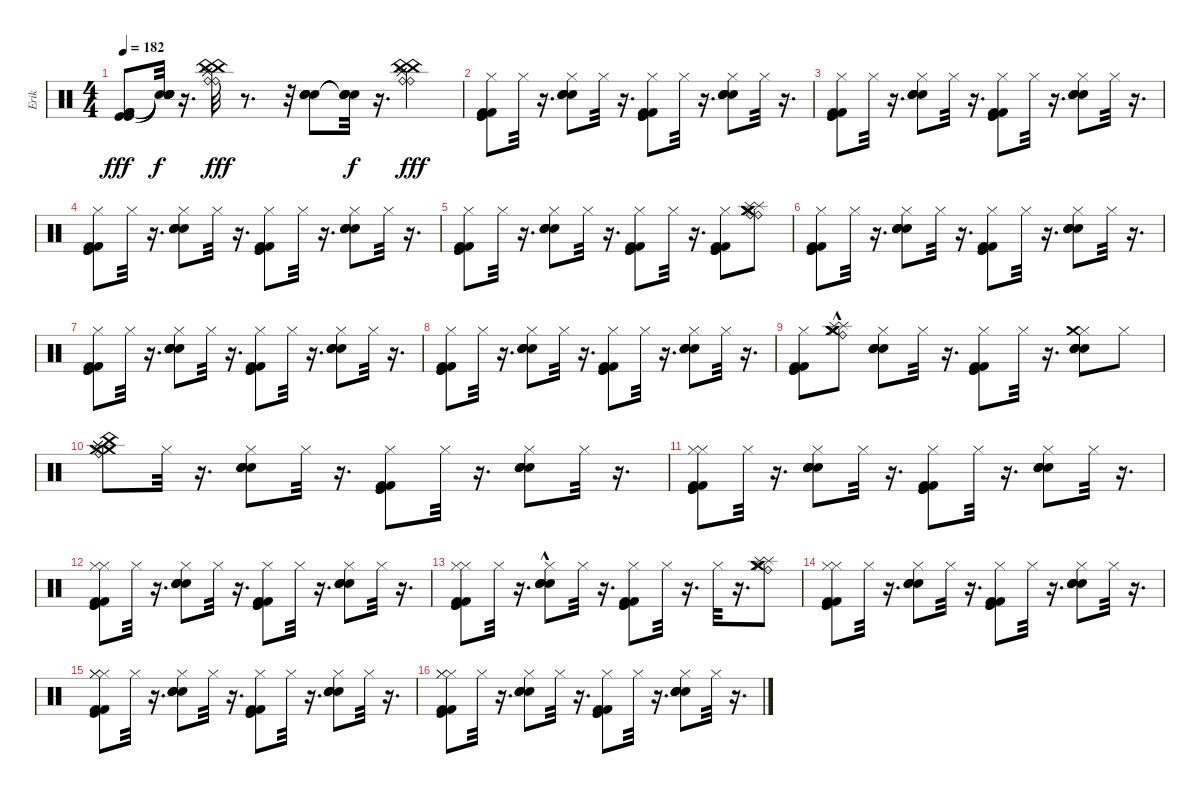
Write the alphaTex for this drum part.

\track ("Erik" "Erik") {instrument percussion}
\staff {score}
\articulation defaults
\ts (4 4)
\tempo 182
\clef neutral
\ks c
("Kick (hit)" "Kick (hit)" "Kick (hit) 2" "Kick (hit) 2" "Kick (hit) 2").8{dy fff} ("Snare (hit)"{t} "Snare (hit)"{t} "Snare (hit)"{t} "Snare (hit)"{t} "Snare (hit)"{t}).32{dy f} r.16{d} ("Splash (hit)" "Splash (hit)" "China (hit)" "China (hit)" "Ride (bell)" "Ride (bell)").32{dy fff} r.8{d} r.32 ("Electric Snare (hit)" "Electric Snare (hit)" "Snare (hit) 2" "Snare (hit) 2").8 ("Snare (hit)"{t} "Snare (hit)"{t} "Snare (hit)"{t} "Snare (hit)"{t}).32{dy f} r.16{d} ("Splash (hit)" "Splash (hit)" "Ride (bell)" "Ride (bell)" "China (hit)" "China (hit)").4{dy fff} |
("Hi-Hat (closed)" "Kick (hit) 2" "Kick (hit) 2" "Kick (hit)" "Kick (hit)").8 "Hi-Hat (closed)".32 r.16{d} ("Hi-Hat (closed)" "Electric Snare (hit)" "Electric Snare (hit)" "Snare (hit) 2" "Snare (hit) 2").8 "Hi-Hat (closed)".32 r.16{d} ("Hi-Hat (closed)" "Kick (hit) 2" "Kick (hit) 2" "Kick (hit)" "Kick (hit)").8 "Hi-Hat (closed)".32 r.16{d} ("Hi-Hat (closed)" "Electric Snare (hit)" "Electric Snare (hit)" "Snare (hit) 2" "Snare (hit) 2").8 "Hi-Hat (closed)".32 r.16{d} |
("Hi-Hat (closed)" "Kick (hit) 2" "Kick (hit) 2" "Kick (hit)" "Kick (hit)").8 "Hi-Hat (closed)".32 r.16{d} ("Hi-Hat (closed)" "Electric Snare (hit)" "Electric Snare (hit)" "Snare (hit) 2" "Snare (hit) 2").8 "Hi-Hat (closed)".32 r.16{d} ("Hi-Hat (closed)" "Kick (hit) 2" "Kick (hit) 2" "Kick (hit)" "Kick (hit)").8 "Hi-Hat (closed)".32 r.16{d} ("Hi-Hat (closed)" "Electric Snare (hit)" "Electric Snare (hit)" "Snare (hit) 2" "Snare (hit) 2").8 "Hi-Hat (closed)".32 r.16{d} |
("Hi-Hat (closed)" "Kick (hit) 2" "Kick (hit) 2" "Kick (hit)" "Kick (hit)").8 "Hi-Hat (closed)".32 r.16{d} ("Hi-Hat (closed)" "Electric Snare (hit)" "Electric Snare (hit)" "Snare (hit) 2" "Snare (hit) 2").8 "Hi-Hat (closed)".32 r.16{d} ("Hi-Hat (closed)" "Kick (hit) 2" "Kick (hit) 2" "Kick (hit)" "Kick (hit)").8 "Hi-Hat (closed)".32 r.16{d} ("Hi-Hat (closed)" "Electric Snare (hit)" "Electric Snare (hit)" "Snare (hit) 2" "Snare (hit) 2").8 "Hi-Hat (closed)".32 r.16{d} |
("Hi-Hat (closed)" "Kick (hit) 2" "Kick (hit) 2" "Kick (hit)" "Kick (hit)").8 "Hi-Hat (closed)".32 r.16{d} ("Hi-Hat (closed)" "Electric Snare (hit)" "Electric Snare (hit)" "Snare (hit) 2" "Snare (hit) 2").8 "Hi-Hat (closed)".32 r.16{d} ("Hi-Hat (closed)" "Kick (hit) 2" "Kick (hit) 2" "Kick (hit)" "Kick (hit)").8 "Hi-Hat (closed)".32 r.16{d} ("Kick (hit) 2" "Kick (hit) 2" "Kick (hit)" "Kick (hit)" "Hi-Hat (closed)").8 ("Crash medium (hit)" "Crash medium (hit)" "Splash (hit)" "Splash (hit)" "Ride (bell)" "Ride (bell)").8 |
("Hi-Hat (closed)" "Kick (hit) 2" "Kick (hit) 2" "Kick (hit)" "Kick (hit)").8 "Hi-Hat (closed)".32 r.16{d} ("Hi-Hat (closed)" "Electric Snare (hit)" "Electric Snare (hit)" "Snare (hit) 2" "Snare (hit) 2").8 "Hi-Hat (closed)".32 r.16{d} ("Hi-Hat (closed)" "Kick (hit) 2" "Kick (hit) 2" "Kick (hit)" "Kick (hit)").8 "Hi-Hat (closed)".32 r.16{d} ("Hi-Hat (closed)" "Electric Snare (hit)" "Electric Snare (hit)" "Snare (hit) 2" "Snare (hit) 2").8 "Hi-Hat (closed)".32 r.16{d} |
("Hi-Hat (closed)" "Kick (hit) 2" "Kick (hit) 2" "Kick (hit)" "Kick (hit)").8 "Hi-Hat (closed)".32 r.16{d} ("Hi-Hat (closed)" "Electric Snare (hit)" "Electric Snare (hit)" "Snare (hit) 2" "Snare (hit) 2").8 "Hi-Hat (closed)".32 r.16{d} ("Hi-Hat (closed)" "Kick (hit) 2" "Kick (hit) 2" "Kick (hit)" "Kick (hit)").8 "Hi-Hat (closed)".32 r.16{d} ("Hi-Hat (closed)" "Electric Snare (hit)" "Electric Snare (hit)" "Snare (hit) 2" "Snare (hit) 2").8 "Hi-Hat (closed)".32 r.16{d} |
("Hi-Hat (closed)" "Kick (hit) 2" "Kick (hit) 2" "Kick (hit)" "Kick (hit)").8 "Hi-Hat (closed)".32 r.16{d} ("Hi-Hat (closed)" "Electric Snare (hit)" "Electric Snare (hit)" "Snare (hit) 2" "Snare (hit) 2").8 "Hi-Hat (closed)".32 r.16{d} ("Hi-Hat (closed)" "Kick (hit) 2" "Kick (hit) 2" "Kick (hit)" "Kick (hit)").8 "Hi-Hat (closed)".32 r.16{d} ("Hi-Hat (closed)" "Electric Snare (hit)" "Electric Snare (hit)" "Snare (hit) 2" "Snare (hit) 2").8 "Hi-Hat (closed)".32 r.16{d} |
("Hi-Hat (closed)" "Kick (hit) 2" "Kick (hit) 2" "Kick (hit)" "Kick (hit)").8 ("Hi-Hat (closed)" "Crash medium (hit)" "Crash medium (hit)" "Splash (hit)"{hac} "Splash (hit)"{hac} "Ride (bell)"{hac}).8 ("Hi-Hat (closed)" "Electric Snare (hit)" "Electric Snare (hit)" "Snare (hit) 2" "Snare (hit) 2").8 "Hi-Hat (closed)".32 r.16{d} ("Hi-Hat (closed)" "Kick (hit) 2" "Kick (hit) 2" "Kick (hit)" "Kick (hit)").8 "Hi-Hat (closed)".32 r.16{d} ("Hi-Hat (closed)" "Electric Snare (hit)" "Electric Snare (hit)" "Snare (hit) 2" "Snare (hit) 2" "Crash medium (hit)").8 "Hi-Hat (closed)".8 |
("Crash medium (hit)" "Splash (hit)" "Splash (hit)" "Crash medium (hit)" "China (hit)" "Ride (bell)").8 "Hi-Hat (closed)".32 r.16{d} ("Hi-Hat (closed)" "Electric Snare (hit)" "Electric Snare (hit)" "Snare (hit) 2" "Snare (hit) 2").8 "Hi-Hat (closed)".32 r.16{d} ("Hi-Hat (closed)" "Kick (hit) 2" "Kick (hit) 2" "Kick (hit)" "Kick (hit)").8 "Hi-Hat (closed)".32 r.16{d} ("Hi-Hat (closed)" "Electric Snare (hit)" "Electric Snare (hit)" "Snare (hit) 2" "Snare (hit) 2").8 "Hi-Hat (closed)".32 r.16{d} |
("Hi-Hat (closed)" "Hi-Hat (closed)" "Kick (hit) 2" "Kick (hit) 2" "Kick (hit)" "Kick (hit)").8 "Hi-Hat (closed)".32 r.16{d} ("Hi-Hat (closed)" "Electric Snare (hit)" "Electric Snare (hit)" "Snare (hit) 2" "Snare (hit) 2").8 "Hi-Hat (closed)".32 r.16{d} ("Hi-Hat (closed)" "Kick (hit) 2" "Kick (hit) 2" "Kick (hit)" "Kick (hit)").8 "Hi-Hat (closed)".32 r.16{d} ("Hi-Hat (closed)" "Electric Snare (hit)" "Electric Snare (hit)" "Snare (hit) 2" "Snare (hit) 2").8 "Hi-Hat (closed)".32 r.16{d} |
("Hi-Hat (closed)" "Hi-Hat (closed)" "Kick (hit) 2" "Kick (hit) 2" "Kick (hit)" "Kick (hit)").8 "Hi-Hat (closed)".32 r.16{d} ("Hi-Hat (closed)" "Electric Snare (hit)" "Electric Snare (hit)" "Snare (hit) 2" "Snare (hit) 2").8 "Hi-Hat (closed)".32 r.16{d} ("Hi-Hat (closed)" "Kick (hit) 2" "Kick (hit) 2" "Kick (hit)" "Kick (hit)").8 "Hi-Hat (closed)".32 r.16{d} ("Hi-Hat (closed)" "Electric Snare (hit)" "Electric Snare (hit)" "Snare (hit) 2" "Snare (hit) 2").8 "Hi-Hat (closed)".32 r.16{d} |
("Hi-Hat (closed)" "Hi-Hat (closed)" "Kick (hit) 2" "Kick (hit) 2" "Kick (hit)" "Kick (hit)").8 "Hi-Hat (closed)".32 r.16{d} ("Hi-Hat (closed)" "Electric Snare (hit)"{hac} "Electric Snare (hit)"{hac} "Snare (hit) 2"{hac} "Snare (hit) 2"{hac}).8 "Hi-Hat (closed)".32 r.16{d} ("Hi-Hat (closed)" "Kick (hit) 2" "Kick (hit) 2" "Kick (hit)" "Kick (hit)").8 "Hi-Hat (closed)".32 r.16{d} "Hi-Hat (closed)".32 r.16{d} ("Hi-Hat (closed)" "Crash medium (hit)" "Crash medium (hit)" "Splash (hit)" "Splash (hit)" "Ride (bell)").8 |
("Hi-Hat (closed)" "Hi-Hat (closed)" "Kick (hit) 2" "Kick (hit) 2" "Kick (hit)" "Kick (hit)").8 "Hi-Hat (closed)".32 r.16{d} ("Hi-Hat (closed)" "Electric Snare (hit)" "Electric Snare (hit)" "Snare (hit) 2" "Snare (hit) 2").8 "Hi-Hat (closed)".32 r.16{d} ("Hi-Hat (closed)" "Kick (hit) 2" "Kick (hit) 2" "Kick (hit)" "Kick (hit)").8 "Hi-Hat (closed)".32 r.16{d} ("Hi-Hat (closed)" "Electric Snare (hit)" "Electric Snare (hit)" "Snare (hit) 2" "Snare (hit) 2").8 "Hi-Hat (closed)".32 r.16{d} |
("Hi-Hat (closed)" "Hi-Hat (closed)" "Hi-Hat (closed)" "Kick (hit) 2" "Kick (hit) 2" "Kick (hit)").8 "Hi-Hat (closed)".32 r.16{d} ("Hi-Hat (closed)" "Electric Snare (hit)" "Electric Snare (hit)" "Snare (hit) 2" "Snare (hit) 2").8 "Hi-Hat (closed)".32 r.16{d} ("Hi-Hat (closed)" "Kick (hit) 2" "Kick (hit) 2" "Kick (hit)" "Kick (hit)").8 "Hi-Hat (closed)".32 r.16{d} ("Hi-Hat (closed)" "Electric Snare (hit)" "Electric Snare (hit)" "Snare (hit) 2" "Snare (hit) 2").8 "Hi-Hat (closed)".32 r.16{d} |
("Hi-Hat (closed)" "Hi-Hat (closed)" "Hi-Hat (closed)" "Kick (hit) 2" "Kick (hit) 2" "Kick (hit)").8 "Hi-Hat (closed)".32 r.16{d} ("Hi-Hat (closed)" "Electric Snare (hit)" "Electric Snare (hit)" "Snare (hit) 2" "Snare (hit) 2").8 "Hi-Hat (closed)".32 r.16{d} ("Hi-Hat (closed)" "Kick (hit) 2" "Kick (hit) 2" "Kick (hit)" "Kick (hit)").8 "Hi-Hat (closed)".32 r.16{d} ("Hi-Hat (closed)" "Electric Snare (hit)" "Electric Snare (hit)" "Snare (hit) 2" "Snare (hit) 2").8 "Hi-Hat (closed)".32 r.16{d}
